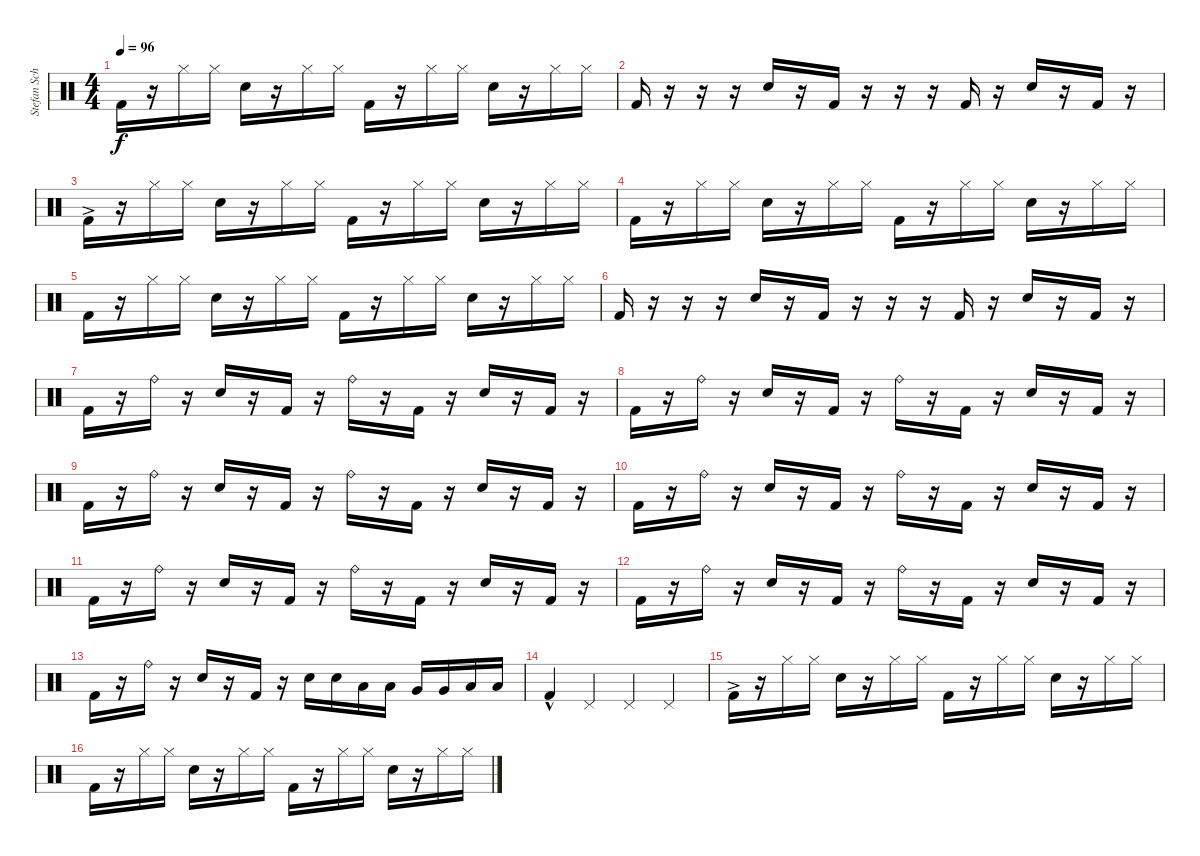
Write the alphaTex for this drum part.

\track ("Stefan Schwarzmann" "Stefan Sch") {instrument percussion}
\staff {score}
\articulation defaults
\ts (4 4)
\tempo 96
\clef neutral
\ks c "Kick (hit) 2".16{dy f}
r.16 "Hi-Hat (closed)".16 "Hi-Hat (closed)".16 "Snare (hit) 2".16 r.16 "Hi-Hat (closed)".16 "Hi-Hat (closed)".16 "Kick (hit) 2".16 r.16 "Hi-Hat (closed)".16 "Hi-Hat (closed)".16 "Snare (hit) 2".16 r.16 "Hi-Hat (closed)".16 "Hi-Hat (closed)".16 |
"Kick (hit) 2".16 r.16 r.16 r.16 "Snare (hit) 2".16 r.16 "Kick (hit) 2".16 r.16 r.16 r.16 "Kick (hit) 2".16 r.16 "Snare (hit) 2".16 r.16 "Kick (hit) 2".16 r.16 |
"Kick (hit) 2"{ac}.16 r.16 "Hi-Hat (closed)".16 "Hi-Hat (closed)".16 "Snare (hit) 2".16 r.16 "Hi-Hat (closed)".16 "Hi-Hat (closed)".16 "Kick (hit) 2".16 r.16 "Hi-Hat (closed)".16 "Hi-Hat (closed)".16 "Snare (hit) 2".16 r.16 "Hi-Hat (closed)".16 "Hi-Hat (closed)".16 |
"Kick (hit) 2".16 r.16 "Hi-Hat (closed)".16 "Hi-Hat (closed)".16 "Snare (hit) 2".16 r.16 "Hi-Hat (closed)".16 "Hi-Hat (closed)".16 "Kick (hit) 2".16 r.16 "Hi-Hat (closed)".16 "Hi-Hat (closed)".16 "Snare (hit) 2".16 r.16 "Hi-Hat (closed)".16 "Hi-Hat (closed)".16 |
"Kick (hit) 2".16 r.16 "Hi-Hat (closed)".16 "Hi-Hat (closed)".16 "Snare (hit) 2".16 r.16 "Hi-Hat (closed)".16 "Hi-Hat (closed)".16 "Kick (hit) 2".16 r.16 "Hi-Hat (closed)".16 "Hi-Hat (closed)".16 "Snare (hit) 2".16 r.16 "Hi-Hat (closed)".16 "Hi-Hat (closed)".16 |
"Kick (hit) 2".16 r.16 r.16 r.16 "Snare (hit) 2".16 r.16 "Kick (hit) 2".16 r.16 r.16 r.16 "Kick (hit) 2".16 r.16 "Snare (hit) 2".16 r.16 "Kick (hit) 2".16 r.16 |
"Kick (hit) 2".16 r.16 "Ride (bell)".16 r.16 "Snare (hit) 2".16 r.16 "Kick (hit) 2".16 r.16 "Ride (bell)".16 r.16 "Kick (hit) 2".16 r.16 "Snare (hit) 2".16 r.16 "Kick (hit) 2".16 r.16 |
"Kick (hit) 2".16 r.16 "Ride (bell)".16 r.16 "Snare (hit) 2".16 r.16 "Kick (hit) 2".16 r.16 "Ride (bell)".16 r.16 "Kick (hit) 2".16 r.16 "Snare (hit) 2".16 r.16 "Kick (hit) 2".16 r.16 |
"Kick (hit) 2".16 r.16 "Ride (bell)".16 r.16 "Snare (hit) 2".16 r.16 "Kick (hit) 2".16 r.16 "Ride (bell)".16 r.16 "Kick (hit) 2".16 r.16 "Snare (hit) 2".16 r.16 "Kick (hit) 2".16 r.16 |
"Kick (hit) 2".16 r.16 "Ride (bell)".16 r.16 "Snare (hit) 2".16 r.16 "Kick (hit) 2".16 r.16 "Ride (bell)".16 r.16 "Kick (hit) 2".16 r.16 "Snare (hit) 2".16 r.16 "Kick (hit) 2".16 r.16 |
"Kick (hit) 2".16 r.16 "Ride (bell)".16 r.16 "Snare (hit) 2".16 r.16 "Kick (hit) 2".16 r.16 "Ride (bell)".16 r.16 "Kick (hit) 2".16 r.16 "Snare (hit) 2".16 r.16 "Kick (hit) 2".16 r.16 |
"Kick (hit) 2".16 r.16 "Ride (bell)".16 r.16 "Snare (hit) 2".16 r.16 "Kick (hit) 2".16 r.16 "Ride (bell)".16 r.16 "Kick (hit) 2".16 r.16 "Snare (hit) 2".16 r.16 "Kick (hit) 2".16 r.16 |
"Kick (hit) 2".16 r.16 "Ride (bell)".16 r.16 "Snare (hit) 2".16 r.16 "Kick (hit) 2".16 r.16 "Snare (hit) 2".16 "Snare (hit) 2".16 "Low Tom (hit)".16 "Low Tom (hit)".16 "Very Low Tom (hit)".16 "Very Low Tom (hit)".16 "Low Floor Tom (hit)".16 "Low Floor Tom (hit)".16 |
"Kick (hit) 2"{hac}.4 "Pedal Hi-Hat (hit)".4 "Pedal Hi-Hat (hit)".4 "Pedal Hi-Hat (hit)".4 |
"Kick (hit) 2"{ac}.16 r.16 "Hi-Hat (closed)".16 "Hi-Hat (closed)".16 "Snare (hit) 2".16 r.16 "Hi-Hat (closed)".16 "Hi-Hat (closed)".16 "Kick (hit) 2".16 r.16 "Hi-Hat (closed)".16 "Hi-Hat (closed)".16 "Snare (hit) 2".16 r.16 "Hi-Hat (closed)".16 "Hi-Hat (closed)".16 |
"Kick (hit) 2".16 r.16 "Hi-Hat (closed)".16 "Hi-Hat (closed)".16 "Snare (hit) 2".16 r.16 "Hi-Hat (closed)".16 "Hi-Hat (closed)".16 "Kick (hit) 2".16 r.16 "Hi-Hat (closed)".16 "Hi-Hat (closed)".16 "Snare (hit) 2".16 r.16 "Hi-Hat (closed)".16 "Hi-Hat (closed)".16
